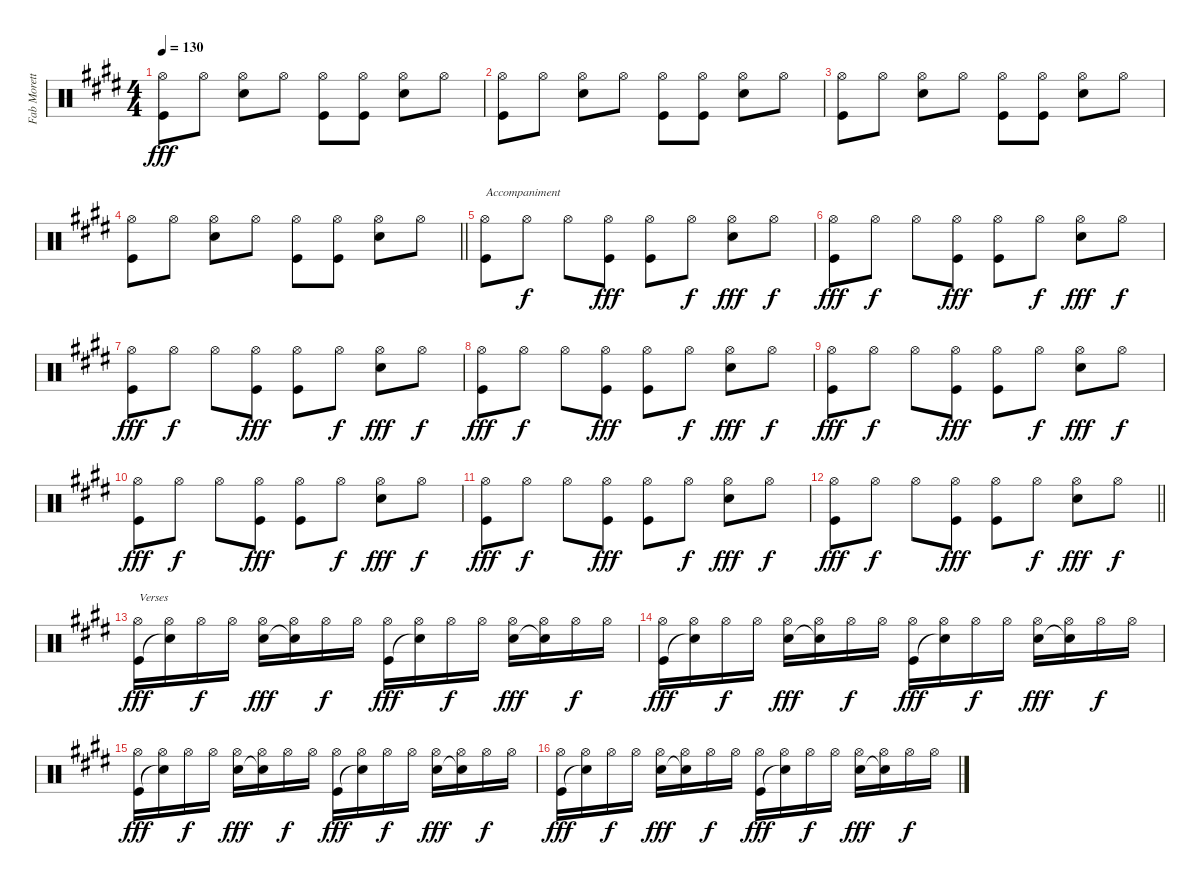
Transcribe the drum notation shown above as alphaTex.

\track ("Fab Moretti" "Fab Morett") {instrument percussion}
\staff {score}
\articulation defaults
\ts (4 4)
\tempo 130
\clef neutral
\ks e
("Hi-Hat (open)" "Kick (hit)").8{dy fff} "Hi-Hat (open)".8 ("Hi-Hat (open)" "Snare (hit) 2").8 "Hi-Hat (open)".8 ("Hi-Hat (open)" "Kick (hit)").8 ("Hi-Hat (open)" "Kick (hit)").8 ("Hi-Hat (open)" "Snare (hit) 2").8 "Hi-Hat (open)".8 |
("Hi-Hat (open)" "Kick (hit)").8 "Hi-Hat (open)".8 ("Hi-Hat (open)" "Snare (hit) 2").8 "Hi-Hat (open)".8 ("Hi-Hat (open)" "Kick (hit)").8 ("Hi-Hat (open)" "Kick (hit)").8 ("Hi-Hat (open)" "Snare (hit) 2").8 "Hi-Hat (open)".8 |
("Hi-Hat (open)" "Kick (hit)").8 "Hi-Hat (open)".8 ("Hi-Hat (open)" "Snare (hit) 2").8 "Hi-Hat (open)".8 ("Hi-Hat (open)" "Kick (hit)").8 ("Hi-Hat (open)" "Kick (hit)").8 ("Hi-Hat (open)" "Snare (hit) 2").8 "Hi-Hat (open)".8 |
\barLineRight lightlight
("Hi-Hat (open)" "Kick (hit)").8 "Hi-Hat (open)".8 ("Hi-Hat (open)" "Snare (hit) 2").8 "Hi-Hat (open)".8 ("Hi-Hat (open)" "Kick (hit)").8 ("Hi-Hat (open)" "Kick (hit)").8 ("Hi-Hat (open)" "Snare (hit) 2").8 "Hi-Hat (open)".8 |
("Kick (hit)" "Hi-Hat (open)").8{txt "Accompaniment"} "Hi-Hat (open)".8{dy f} "Hi-Hat (open)".8 ("Kick (hit)" "Hi-Hat (open)").8{dy fff} ("Kick (hit)" "Hi-Hat (open)").8 "Hi-Hat (open)".8{dy f} ("Snare (hit) 2" "Hi-Hat (open)").8{dy fff} "Hi-Hat (open)".8{dy f} |
("Kick (hit)" "Hi-Hat (open)").8{dy fff} "Hi-Hat (open)".8{dy f} "Hi-Hat (open)".8 ("Kick (hit)" "Hi-Hat (open)").8{dy fff} ("Kick (hit)" "Hi-Hat (open)").8 "Hi-Hat (open)".8{dy f} ("Snare (hit) 2" "Hi-Hat (open)").8{dy fff} "Hi-Hat (open)".8{dy f} |
("Kick (hit)" "Hi-Hat (open)").8{dy fff} "Hi-Hat (open)".8{dy f} "Hi-Hat (open)".8 ("Kick (hit)" "Hi-Hat (open)").8{dy fff} ("Kick (hit)" "Hi-Hat (open)").8 "Hi-Hat (open)".8{dy f} ("Snare (hit) 2" "Hi-Hat (open)").8{dy fff} "Hi-Hat (open)".8{dy f} |
("Kick (hit)" "Hi-Hat (open)").8{dy fff} "Hi-Hat (open)".8{dy f} "Hi-Hat (open)".8 ("Kick (hit)" "Hi-Hat (open)").8{dy fff} ("Kick (hit)" "Hi-Hat (open)").8 "Hi-Hat (open)".8{dy f} ("Snare (hit) 2" "Hi-Hat (open)").8{dy fff} "Hi-Hat (open)".8{dy f} |
("Kick (hit)" "Hi-Hat (open)").8{dy fff} "Hi-Hat (open)".8{dy f} "Hi-Hat (open)".8 ("Kick (hit)" "Hi-Hat (open)").8{dy fff} ("Kick (hit)" "Hi-Hat (open)").8 "Hi-Hat (open)".8{dy f} ("Snare (hit) 2" "Hi-Hat (open)").8{dy fff} "Hi-Hat (open)".8{dy f} |
("Kick (hit)" "Hi-Hat (open)").8{dy fff} "Hi-Hat (open)".8{dy f} "Hi-Hat (open)".8 ("Kick (hit)" "Hi-Hat (open)").8{dy fff} ("Kick (hit)" "Hi-Hat (open)").8 "Hi-Hat (open)".8{dy f} ("Snare (hit) 2" "Hi-Hat (open)").8{dy fff} "Hi-Hat (open)".8{dy f} |
("Kick (hit)" "Hi-Hat (open)").8{dy fff} "Hi-Hat (open)".8{dy f} "Hi-Hat (open)".8 ("Kick (hit)" "Hi-Hat (open)").8{dy fff} ("Kick (hit)" "Hi-Hat (open)").8 "Hi-Hat (open)".8{dy f} ("Snare (hit) 2" "Hi-Hat (open)").8{dy fff} "Hi-Hat (open)".8{dy f} |
\barLineRight lightlight
("Kick (hit)" "Hi-Hat (open)").8{dy fff} "Hi-Hat (open)".8{dy f} "Hi-Hat (open)".8 ("Kick (hit)" "Hi-Hat (open)").8{dy fff} ("Kick (hit)" "Hi-Hat (open)").8 "Hi-Hat (open)".8{dy f} ("Snare (hit) 2" "Hi-Hat (open)").8{dy fff} "Hi-Hat (open)".8{dy f} |
("Hi-Hat (open)" "Kick (hit)").16{txt "Verses" dy fff} ("Hi-Hat (open)" "Snare (hit)"{t}).16 "Hi-Hat (open)".16{dy f} "Hi-Hat (open)".16 ("Hi-Hat (open)" "Snare (hit) 2").16{dy fff} ("Hi-Hat (open)" "Snare (hit)"{t}).16 "Hi-Hat (open)".16{dy f} "Hi-Hat (open)".16 ("Hi-Hat (open)" "Kick (hit)").16{dy fff} ("Hi-Hat (open)" "Snare (hit)"{t}).16 "Hi-Hat (open)".16{dy f} "Hi-Hat (open)".16 ("Hi-Hat (open)" "Snare (hit) 2").16{dy fff} ("Hi-Hat (open)" "Snare (hit)"{t}).16 "Hi-Hat (open)".16{dy f} "Hi-Hat (open)".16 |
("Hi-Hat (open)" "Kick (hit)").16{dy fff} ("Hi-Hat (open)" "Snare (hit)"{t}).16 "Hi-Hat (open)".16{dy f} "Hi-Hat (open)".16 ("Hi-Hat (open)" "Snare (hit) 2").16{dy fff} ("Hi-Hat (open)" "Snare (hit)"{t}).16 "Hi-Hat (open)".16{dy f} "Hi-Hat (open)".16 ("Hi-Hat (open)" "Kick (hit)").16{dy fff} ("Hi-Hat (open)" "Snare (hit)"{t}).16 "Hi-Hat (open)".16{dy f} "Hi-Hat (open)".16 ("Hi-Hat (open)" "Snare (hit) 2").16{dy fff} ("Hi-Hat (open)" "Snare (hit)"{t}).16 "Hi-Hat (open)".16{dy f} "Hi-Hat (open)".16 |
("Hi-Hat (open)" "Kick (hit)").16{dy fff} ("Hi-Hat (open)" "Snare (hit)"{t}).16 "Hi-Hat (open)".16{dy f} "Hi-Hat (open)".16 ("Hi-Hat (open)" "Snare (hit) 2").16{dy fff} ("Hi-Hat (open)" "Snare (hit)"{t}).16 "Hi-Hat (open)".16{dy f} "Hi-Hat (open)".16 ("Hi-Hat (open)" "Kick (hit)").16{dy fff} ("Hi-Hat (open)" "Snare (hit)"{t}).16 "Hi-Hat (open)".16{dy f} "Hi-Hat (open)".16 ("Hi-Hat (open)" "Snare (hit) 2").16{dy fff} ("Hi-Hat (open)" "Snare (hit)"{t}).16 "Hi-Hat (open)".16{dy f} "Hi-Hat (open)".16 |
("Hi-Hat (open)" "Kick (hit)").16{dy fff} ("Hi-Hat (open)" "Snare (hit)"{t}).16 "Hi-Hat (open)".16{dy f} "Hi-Hat (open)".16 ("Hi-Hat (open)" "Snare (hit) 2").16{dy fff} ("Hi-Hat (open)" "Snare (hit)"{t}).16 "Hi-Hat (open)".16{dy f} "Hi-Hat (open)".16 ("Hi-Hat (open)" "Kick (hit)").16{dy fff} ("Hi-Hat (open)" "Snare (hit)"{t}).16 "Hi-Hat (open)".16{dy f} "Hi-Hat (open)".16 ("Hi-Hat (open)" "Snare (hit) 2").16{dy fff} ("Hi-Hat (open)" "Snare (hit)"{t}).16 "Hi-Hat (open)".16{dy f} "Hi-Hat (open)".16
